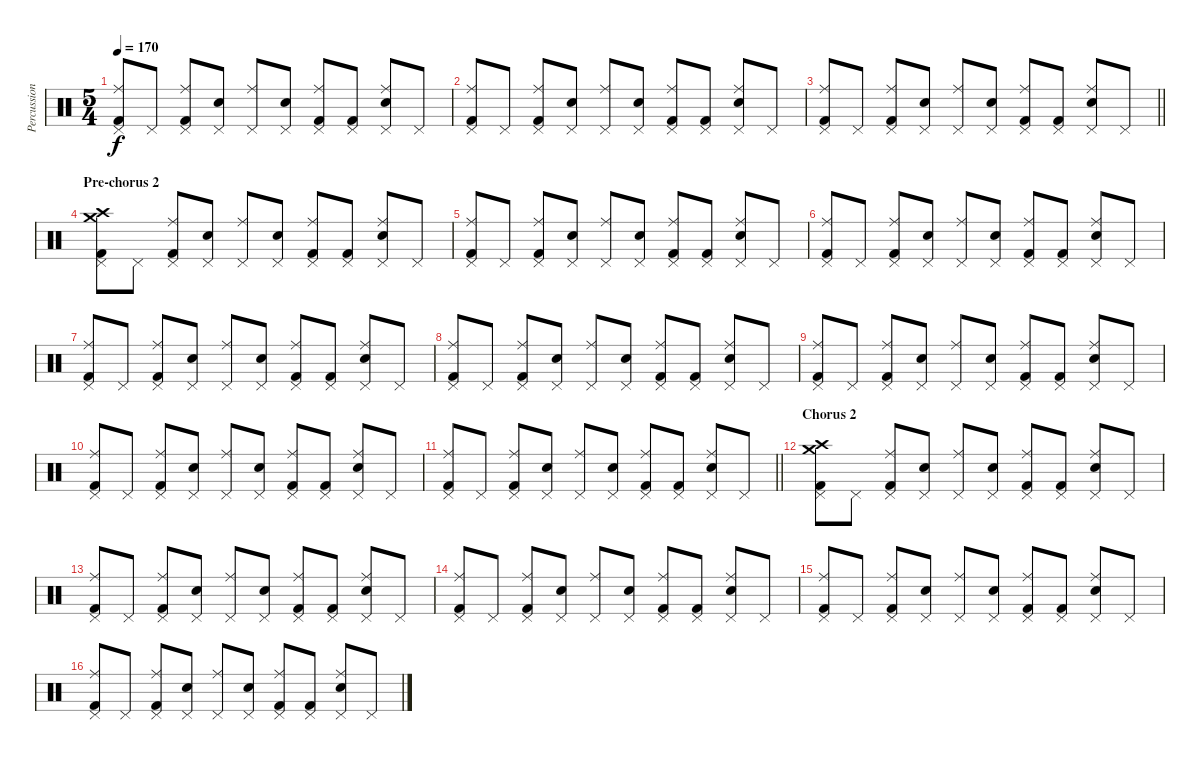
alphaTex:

\track ("Percussion" "Percussion") {instrument percussion}
\staff {score}
\articulation defaults
\ts (5 4)
\tempo 170
\clef neutral
\ks c
("Ride (middle)" "Pedal Hi-Hat (hit)" "Kick (hit) 2").8{dy f} "Pedal Hi-Hat (hit)".8 ("Ride (middle)" "Pedal Hi-Hat (hit)" "Kick (hit) 2").8 ("Electric Snare (hit)" "Pedal Hi-Hat (hit)").8 ("Ride (middle)" "Pedal Hi-Hat (hit)").8 ("Electric Snare (hit)" "Pedal Hi-Hat (hit)").8 ("Ride (middle)" "Pedal Hi-Hat (hit)" "Kick (hit) 2").8 ("Pedal Hi-Hat (hit)" "Kick (hit) 2").8 ("Ride (middle)" "Electric Snare (hit)" "Pedal Hi-Hat (hit)").8 "Pedal Hi-Hat (hit)".8 |
("Ride (middle)" "Pedal Hi-Hat (hit)" "Kick (hit) 2").8 "Pedal Hi-Hat (hit)".8 ("Ride (middle)" "Pedal Hi-Hat (hit)" "Kick (hit) 2").8 ("Electric Snare (hit)" "Pedal Hi-Hat (hit)").8 ("Ride (middle)" "Pedal Hi-Hat (hit)").8 ("Electric Snare (hit)" "Pedal Hi-Hat (hit)").8 ("Ride (middle)" "Pedal Hi-Hat (hit)" "Kick (hit) 2").8 ("Pedal Hi-Hat (hit)" "Kick (hit) 2").8 ("Ride (middle)" "Electric Snare (hit)" "Pedal Hi-Hat (hit)").8 "Pedal Hi-Hat (hit)".8 |
\barLineRight lightlight
("Ride (middle)" "Pedal Hi-Hat (hit)" "Kick (hit) 2").8 "Pedal Hi-Hat (hit)".8 ("Ride (middle)" "Pedal Hi-Hat (hit)" "Kick (hit) 2").8 ("Electric Snare (hit)" "Pedal Hi-Hat (hit)").8 ("Ride (middle)" "Pedal Hi-Hat (hit)").8 ("Electric Snare (hit)" "Pedal Hi-Hat (hit)").8 ("Ride (middle)" "Pedal Hi-Hat (hit)" "Kick (hit) 2").8 ("Pedal Hi-Hat (hit)" "Kick (hit) 2").8 ("Ride (middle)" "Electric Snare (hit)" "Pedal Hi-Hat (hit)").8 "Pedal Hi-Hat (hit)".8 |
\section ("" "Pre-chorus 2")
("Crash medium (hit)" "Crash high (hit)" "Pedal Hi-Hat (hit)" "Kick (hit) 2").8 "Pedal Hi-Hat (hit)".8 ("Ride (middle)" "Pedal Hi-Hat (hit)" "Kick (hit) 2").8 ("Electric Snare (hit)" "Pedal Hi-Hat (hit)").8 ("Ride (middle)" "Pedal Hi-Hat (hit)").8 ("Electric Snare (hit)" "Pedal Hi-Hat (hit)").8 ("Ride (middle)" "Pedal Hi-Hat (hit)" "Kick (hit) 2").8 ("Pedal Hi-Hat (hit)" "Kick (hit) 2").8 ("Ride (middle)" "Electric Snare (hit)" "Pedal Hi-Hat (hit)").8 "Pedal Hi-Hat (hit)".8 |
("Ride (middle)" "Pedal Hi-Hat (hit)" "Kick (hit) 2").8 "Pedal Hi-Hat (hit)".8 ("Ride (middle)" "Pedal Hi-Hat (hit)" "Kick (hit) 2").8 ("Electric Snare (hit)" "Pedal Hi-Hat (hit)").8 ("Ride (middle)" "Pedal Hi-Hat (hit)").8 ("Electric Snare (hit)" "Pedal Hi-Hat (hit)").8 ("Ride (middle)" "Pedal Hi-Hat (hit)" "Kick (hit) 2").8 ("Pedal Hi-Hat (hit)" "Kick (hit) 2").8 ("Ride (middle)" "Electric Snare (hit)" "Pedal Hi-Hat (hit)").8 "Pedal Hi-Hat (hit)".8 |
("Ride (middle)" "Pedal Hi-Hat (hit)" "Kick (hit) 2").8 "Pedal Hi-Hat (hit)".8 ("Ride (middle)" "Pedal Hi-Hat (hit)" "Kick (hit) 2").8 ("Electric Snare (hit)" "Pedal Hi-Hat (hit)").8 ("Ride (middle)" "Pedal Hi-Hat (hit)").8 ("Electric Snare (hit)" "Pedal Hi-Hat (hit)").8 ("Ride (middle)" "Pedal Hi-Hat (hit)" "Kick (hit) 2").8 ("Pedal Hi-Hat (hit)" "Kick (hit) 2").8 ("Ride (middle)" "Electric Snare (hit)" "Pedal Hi-Hat (hit)").8 "Pedal Hi-Hat (hit)".8 |
("Ride (middle)" "Pedal Hi-Hat (hit)" "Kick (hit) 2").8 "Pedal Hi-Hat (hit)".8 ("Ride (middle)" "Pedal Hi-Hat (hit)" "Kick (hit) 2").8 ("Electric Snare (hit)" "Pedal Hi-Hat (hit)").8 ("Ride (middle)" "Pedal Hi-Hat (hit)").8 ("Electric Snare (hit)" "Pedal Hi-Hat (hit)").8 ("Ride (middle)" "Pedal Hi-Hat (hit)" "Kick (hit) 2").8 ("Pedal Hi-Hat (hit)" "Kick (hit) 2").8 ("Ride (middle)" "Electric Snare (hit)" "Pedal Hi-Hat (hit)").8 "Pedal Hi-Hat (hit)".8 |
("Ride (middle)" "Pedal Hi-Hat (hit)" "Kick (hit) 2").8 "Pedal Hi-Hat (hit)".8 ("Ride (middle)" "Pedal Hi-Hat (hit)" "Kick (hit) 2").8 ("Electric Snare (hit)" "Pedal Hi-Hat (hit)").8 ("Ride (middle)" "Pedal Hi-Hat (hit)").8 ("Electric Snare (hit)" "Pedal Hi-Hat (hit)").8 ("Ride (middle)" "Pedal Hi-Hat (hit)" "Kick (hit) 2").8 ("Pedal Hi-Hat (hit)" "Kick (hit) 2").8 ("Ride (middle)" "Electric Snare (hit)" "Pedal Hi-Hat (hit)").8 "Pedal Hi-Hat (hit)".8 |
("Ride (middle)" "Pedal Hi-Hat (hit)" "Kick (hit) 2").8 "Pedal Hi-Hat (hit)".8 ("Ride (middle)" "Pedal Hi-Hat (hit)" "Kick (hit) 2").8 ("Electric Snare (hit)" "Pedal Hi-Hat (hit)").8 ("Ride (middle)" "Pedal Hi-Hat (hit)").8 ("Electric Snare (hit)" "Pedal Hi-Hat (hit)").8 ("Ride (middle)" "Pedal Hi-Hat (hit)" "Kick (hit) 2").8 ("Pedal Hi-Hat (hit)" "Kick (hit) 2").8 ("Ride (middle)" "Electric Snare (hit)" "Pedal Hi-Hat (hit)").8 "Pedal Hi-Hat (hit)".8 |
("Ride (middle)" "Pedal Hi-Hat (hit)" "Kick (hit) 2").8 "Pedal Hi-Hat (hit)".8 ("Ride (middle)" "Pedal Hi-Hat (hit)" "Kick (hit) 2").8 ("Electric Snare (hit)" "Pedal Hi-Hat (hit)").8 ("Ride (middle)" "Pedal Hi-Hat (hit)").8 ("Electric Snare (hit)" "Pedal Hi-Hat (hit)").8 ("Ride (middle)" "Pedal Hi-Hat (hit)" "Kick (hit) 2").8 ("Pedal Hi-Hat (hit)" "Kick (hit) 2").8 ("Ride (middle)" "Electric Snare (hit)" "Pedal Hi-Hat (hit)").8 "Pedal Hi-Hat (hit)".8 |
\barLineRight lightlight
("Ride (middle)" "Pedal Hi-Hat (hit)" "Kick (hit) 2").8 "Pedal Hi-Hat (hit)".8 ("Ride (middle)" "Pedal Hi-Hat (hit)" "Kick (hit) 2").8 ("Electric Snare (hit)" "Pedal Hi-Hat (hit)").8 ("Ride (middle)" "Pedal Hi-Hat (hit)").8 ("Electric Snare (hit)" "Pedal Hi-Hat (hit)").8 ("Ride (middle)" "Pedal Hi-Hat (hit)" "Kick (hit) 2").8 ("Pedal Hi-Hat (hit)" "Kick (hit) 2").8 ("Ride (middle)" "Electric Snare (hit)" "Pedal Hi-Hat (hit)").8 "Pedal Hi-Hat (hit)".8 |
\section ("" "Chorus 2")
("Crash medium (hit)" "Crash high (hit)" "Pedal Hi-Hat (hit)" "Kick (hit) 2").8 "Pedal Hi-Hat (hit)".8 ("Ride (middle)" "Pedal Hi-Hat (hit)" "Kick (hit) 2").8 ("Electric Snare (hit)" "Pedal Hi-Hat (hit)").8 ("Ride (middle)" "Pedal Hi-Hat (hit)").8 ("Electric Snare (hit)" "Pedal Hi-Hat (hit)").8 ("Ride (middle)" "Pedal Hi-Hat (hit)" "Kick (hit) 2").8 ("Pedal Hi-Hat (hit)" "Kick (hit) 2").8 ("Ride (middle)" "Electric Snare (hit)" "Pedal Hi-Hat (hit)").8 "Pedal Hi-Hat (hit)".8 |
("Ride (middle)" "Pedal Hi-Hat (hit)" "Kick (hit) 2").8 "Pedal Hi-Hat (hit)".8 ("Ride (middle)" "Pedal Hi-Hat (hit)" "Kick (hit) 2").8 ("Electric Snare (hit)" "Pedal Hi-Hat (hit)").8 ("Ride (middle)" "Pedal Hi-Hat (hit)").8 ("Electric Snare (hit)" "Pedal Hi-Hat (hit)").8 ("Ride (middle)" "Pedal Hi-Hat (hit)" "Kick (hit) 2").8 ("Pedal Hi-Hat (hit)" "Kick (hit) 2").8 ("Ride (middle)" "Electric Snare (hit)" "Pedal Hi-Hat (hit)").8 "Pedal Hi-Hat (hit)".8 |
("Ride (middle)" "Pedal Hi-Hat (hit)" "Kick (hit) 2").8 "Pedal Hi-Hat (hit)".8 ("Ride (middle)" "Pedal Hi-Hat (hit)" "Kick (hit) 2").8 ("Electric Snare (hit)" "Pedal Hi-Hat (hit)").8 ("Ride (middle)" "Pedal Hi-Hat (hit)").8 ("Electric Snare (hit)" "Pedal Hi-Hat (hit)").8 ("Ride (middle)" "Pedal Hi-Hat (hit)" "Kick (hit) 2").8 ("Pedal Hi-Hat (hit)" "Kick (hit) 2").8 ("Ride (middle)" "Electric Snare (hit)" "Pedal Hi-Hat (hit)").8 "Pedal Hi-Hat (hit)".8 |
("Ride (middle)" "Pedal Hi-Hat (hit)" "Kick (hit) 2").8 "Pedal Hi-Hat (hit)".8 ("Ride (middle)" "Pedal Hi-Hat (hit)" "Kick (hit) 2").8 ("Electric Snare (hit)" "Pedal Hi-Hat (hit)").8 ("Ride (middle)" "Pedal Hi-Hat (hit)").8 ("Electric Snare (hit)" "Pedal Hi-Hat (hit)").8 ("Ride (middle)" "Pedal Hi-Hat (hit)" "Kick (hit) 2").8 ("Pedal Hi-Hat (hit)" "Kick (hit) 2").8 ("Ride (middle)" "Electric Snare (hit)" "Pedal Hi-Hat (hit)").8 "Pedal Hi-Hat (hit)".8 |
("Ride (middle)" "Pedal Hi-Hat (hit)" "Kick (hit) 2").8 "Pedal Hi-Hat (hit)".8 ("Ride (middle)" "Pedal Hi-Hat (hit)" "Kick (hit) 2").8 ("Electric Snare (hit)" "Pedal Hi-Hat (hit)").8 ("Ride (middle)" "Pedal Hi-Hat (hit)").8 ("Electric Snare (hit)" "Pedal Hi-Hat (hit)").8 ("Ride (middle)" "Pedal Hi-Hat (hit)" "Kick (hit) 2").8 ("Pedal Hi-Hat (hit)" "Kick (hit) 2").8 ("Ride (middle)" "Electric Snare (hit)" "Pedal Hi-Hat (hit)").8 "Pedal Hi-Hat (hit)".8
